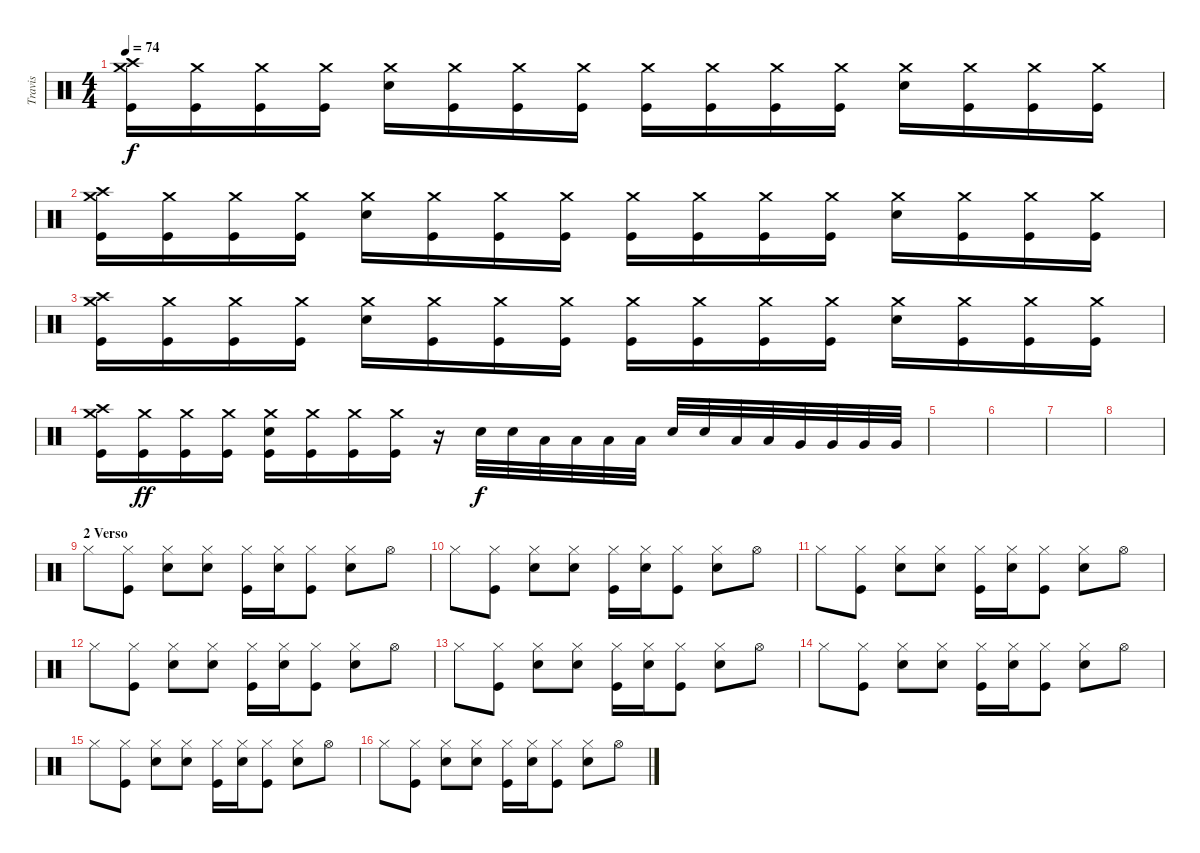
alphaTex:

\track ("Travis" "Travis") {instrument percussion}
\staff {score}
\articulation defaults
\ts (4 4)
\tempo 74
\clef neutral
\ks c
("Crash high (hit)" "Crash medium (hit)" "Kick (hit)").16{dy f} ("Crash medium (hit)" "Kick (hit)").16 ("Crash medium (hit)" "Kick (hit)").16 ("Crash medium (hit)" "Kick (hit)").16 ("Crash medium (hit)" "Electric Snare (hit)").16 ("Crash medium (hit)" "Kick (hit)").16 ("Crash medium (hit)" "Kick (hit)").16 ("Crash medium (hit)" "Kick (hit)").16 ("Crash medium (hit)" "Kick (hit)").16 ("Crash medium (hit)" "Kick (hit)").16 ("Crash medium (hit)" "Kick (hit)").16 ("Crash medium (hit)" "Kick (hit)").16 ("Crash medium (hit)" "Electric Snare (hit)").16 ("Crash medium (hit)" "Kick (hit)").16 ("Crash medium (hit)" "Kick (hit)").16 ("Crash medium (hit)" "Kick (hit)").16 |
("Crash high (hit)" "Crash medium (hit)" "Kick (hit)").16 ("Crash medium (hit)" "Kick (hit)").16 ("Crash medium (hit)" "Kick (hit)").16 ("Crash medium (hit)" "Kick (hit)").16 ("Crash medium (hit)" "Electric Snare (hit)").16 ("Crash medium (hit)" "Kick (hit)").16 ("Crash medium (hit)" "Kick (hit)").16 ("Crash medium (hit)" "Kick (hit)").16 ("Crash medium (hit)" "Kick (hit)").16 ("Crash medium (hit)" "Kick (hit)").16 ("Crash medium (hit)" "Kick (hit)").16 ("Crash medium (hit)" "Kick (hit)").16 ("Crash medium (hit)" "Electric Snare (hit)").16 ("Crash medium (hit)" "Kick (hit)").16 ("Crash medium (hit)" "Kick (hit)").16 ("Crash medium (hit)" "Kick (hit)").16 |
("Crash high (hit)" "Crash medium (hit)" "Kick (hit)").16 ("Crash medium (hit)" "Kick (hit)").16 ("Crash medium (hit)" "Kick (hit)").16 ("Crash medium (hit)" "Kick (hit)").16 ("Crash medium (hit)" "Electric Snare (hit)").16 ("Crash medium (hit)" "Kick (hit)").16 ("Crash medium (hit)" "Kick (hit)").16 ("Crash medium (hit)" "Kick (hit)").16 ("Crash medium (hit)" "Kick (hit)").16 ("Crash medium (hit)" "Kick (hit)").16 ("Crash medium (hit)" "Kick (hit)").16 ("Crash medium (hit)" "Kick (hit)").16 ("Crash medium (hit)" "Electric Snare (hit)").16 ("Crash medium (hit)" "Kick (hit)").16 ("Crash medium (hit)" "Kick (hit)").16 ("Crash medium (hit)" "Kick (hit)").16 |
("Crash high (hit)" "Crash medium (hit)" "Kick (hit)").16 ("Crash medium (hit)" "Kick (hit)").16{dy ff} ("Crash medium (hit)" "Kick (hit)").16 ("Crash medium (hit)" "Kick (hit)").16 ("Crash medium (hit)" "Electric Snare (hit)" "Kick (hit)").16 ("Crash medium (hit)" "Kick (hit)").16 ("Crash medium (hit)" "Kick (hit)").16 ("Crash medium (hit)" "Kick (hit)").16 r.16 "Electric Snare (hit)".32{dy f} "Electric Snare (hit)".32 "Low Tom (hit)".32 "Low Tom (hit)".32 "Low Tom (hit)".32 "Low Tom (hit)".32 "Electric Snare (hit)".32 "Electric Snare (hit)".32 "Low Tom (hit)".32 "Low Tom (hit)".32 "Very Low Tom (hit)".32 "Very Low Tom (hit)".32 "Very Low Tom (hit)".32 "Very Low Tom (hit)".32 |
|
|
|
|
\section ("" "2 Verso")
"Hi-Hat (closed)".8 ("Hi-Hat (closed)" "Kick (hit)").8 ("Hi-Hat (closed)" "Electric Snare (hit)").8 ("Hi-Hat (closed)" "Electric Snare (hit)").8 ("Hi-Hat (closed)" "Kick (hit)").16 ("Hi-Hat (closed)" "Electric Snare (hit)").16 ("Hi-Hat (closed)" "Kick (hit)").8 ("Hi-Hat (closed)" "Electric Snare (hit)").8 "Hi-Hat (open)".8 |
"Hi-Hat (closed)".8 ("Hi-Hat (closed)" "Kick (hit)").8 ("Hi-Hat (closed)" "Electric Snare (hit)").8 ("Hi-Hat (closed)" "Electric Snare (hit)").8 ("Hi-Hat (closed)" "Kick (hit)").16 ("Hi-Hat (closed)" "Electric Snare (hit)").16 ("Hi-Hat (closed)" "Kick (hit)").8 ("Hi-Hat (closed)" "Electric Snare (hit)").8 "Hi-Hat (open)".8 |
"Hi-Hat (closed)".8 ("Hi-Hat (closed)" "Kick (hit)").8 ("Hi-Hat (closed)" "Electric Snare (hit)").8 ("Hi-Hat (closed)" "Electric Snare (hit)").8 ("Hi-Hat (closed)" "Kick (hit)").16 ("Hi-Hat (closed)" "Electric Snare (hit)").16 ("Hi-Hat (closed)" "Kick (hit)").8 ("Hi-Hat (closed)" "Electric Snare (hit)").8 "Hi-Hat (open)".8 |
"Hi-Hat (closed)".8 ("Hi-Hat (closed)" "Kick (hit)").8 ("Hi-Hat (closed)" "Electric Snare (hit)").8 ("Hi-Hat (closed)" "Electric Snare (hit)").8 ("Hi-Hat (closed)" "Kick (hit)").16 ("Hi-Hat (closed)" "Electric Snare (hit)").16 ("Hi-Hat (closed)" "Kick (hit)").8 ("Hi-Hat (closed)" "Electric Snare (hit)").8 "Hi-Hat (open)".8 |
"Hi-Hat (closed)".8 ("Hi-Hat (closed)" "Kick (hit)").8 ("Hi-Hat (closed)" "Electric Snare (hit)").8 ("Hi-Hat (closed)" "Electric Snare (hit)").8 ("Hi-Hat (closed)" "Kick (hit)").16 ("Hi-Hat (closed)" "Electric Snare (hit)").16 ("Hi-Hat (closed)" "Kick (hit)").8 ("Hi-Hat (closed)" "Electric Snare (hit)").8 "Hi-Hat (open)".8 |
"Hi-Hat (closed)".8 ("Hi-Hat (closed)" "Kick (hit)").8 ("Hi-Hat (closed)" "Electric Snare (hit)").8 ("Hi-Hat (closed)" "Electric Snare (hit)").8 ("Hi-Hat (closed)" "Kick (hit)").16 ("Hi-Hat (closed)" "Electric Snare (hit)").16 ("Hi-Hat (closed)" "Kick (hit)").8 ("Hi-Hat (closed)" "Electric Snare (hit)").8 "Hi-Hat (open)".8 |
"Hi-Hat (closed)".8 ("Hi-Hat (closed)" "Kick (hit)").8 ("Hi-Hat (closed)" "Electric Snare (hit)").8 ("Hi-Hat (closed)" "Electric Snare (hit)").8 ("Hi-Hat (closed)" "Kick (hit)").16 ("Hi-Hat (closed)" "Electric Snare (hit)").16 ("Hi-Hat (closed)" "Kick (hit)").8 ("Hi-Hat (closed)" "Electric Snare (hit)").8 "Hi-Hat (open)".8 |
"Hi-Hat (closed)".8 ("Hi-Hat (closed)" "Kick (hit)").8 ("Hi-Hat (closed)" "Electric Snare (hit)").8 ("Hi-Hat (closed)" "Electric Snare (hit)").8 ("Hi-Hat (closed)" "Kick (hit)").16 ("Hi-Hat (closed)" "Electric Snare (hit)").16 ("Hi-Hat (closed)" "Kick (hit)").8 ("Hi-Hat (closed)" "Electric Snare (hit)").8 "Hi-Hat (open)".8
